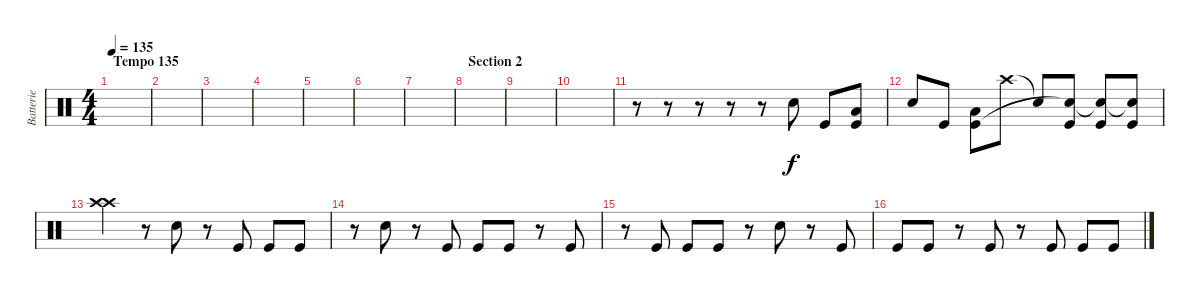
\track ("Batterie" "Batterie") {instrument percussion}
\staff {score}
\articulation defaults
\ts (4 4)
\section ("" "Tempo 135")
\tempo 135
\clef neutral
\ks c
|
|
|
|
|
|
\section ("" "")
|
\section ("" "Section 2")
|
|
|
r.8 r.8 r.8 r.8 r.8 "Electric Snare (hit)".8 "Kick (hit)".8 ("Low Tom (hit)" "Kick (hit)").8 |
"Electric Snare (hit)".8 "Kick (hit)".8 ("Low Tom (hit)" "Kick (hit)").8 "Crash high (hit)".8 "Snare (hit)"{t}.8 ("Kick (hit)" "Snare (hit)"{t}).8 ("Kick (hit)" "Snare (hit)"{t}).8 ("Kick (hit)" "Snare (hit)"{t}).8 |
("Crash high (hit)" "Crash high (hit)").4 r.8 "Electric Snare (hit)".8 r.8 "Kick (hit)".8 "Kick (hit)".8 "Kick (hit)".8 |
r.8 "Electric Snare (hit)".8 r.8 "Kick (hit)".8 "Kick (hit)".8 "Kick (hit)".8 r.8 "Kick (hit)".8 |
r.8 "Kick (hit)".8 "Kick (hit)".8 "Kick (hit)".8 r.8 "Electric Snare (hit)".8 r.8 "Kick (hit)".8 |
"Kick (hit)".8 "Kick (hit)".8 r.8 "Kick (hit)".8 r.8 "Kick (hit)".8 "Kick (hit)".8 "Kick (hit)".8
